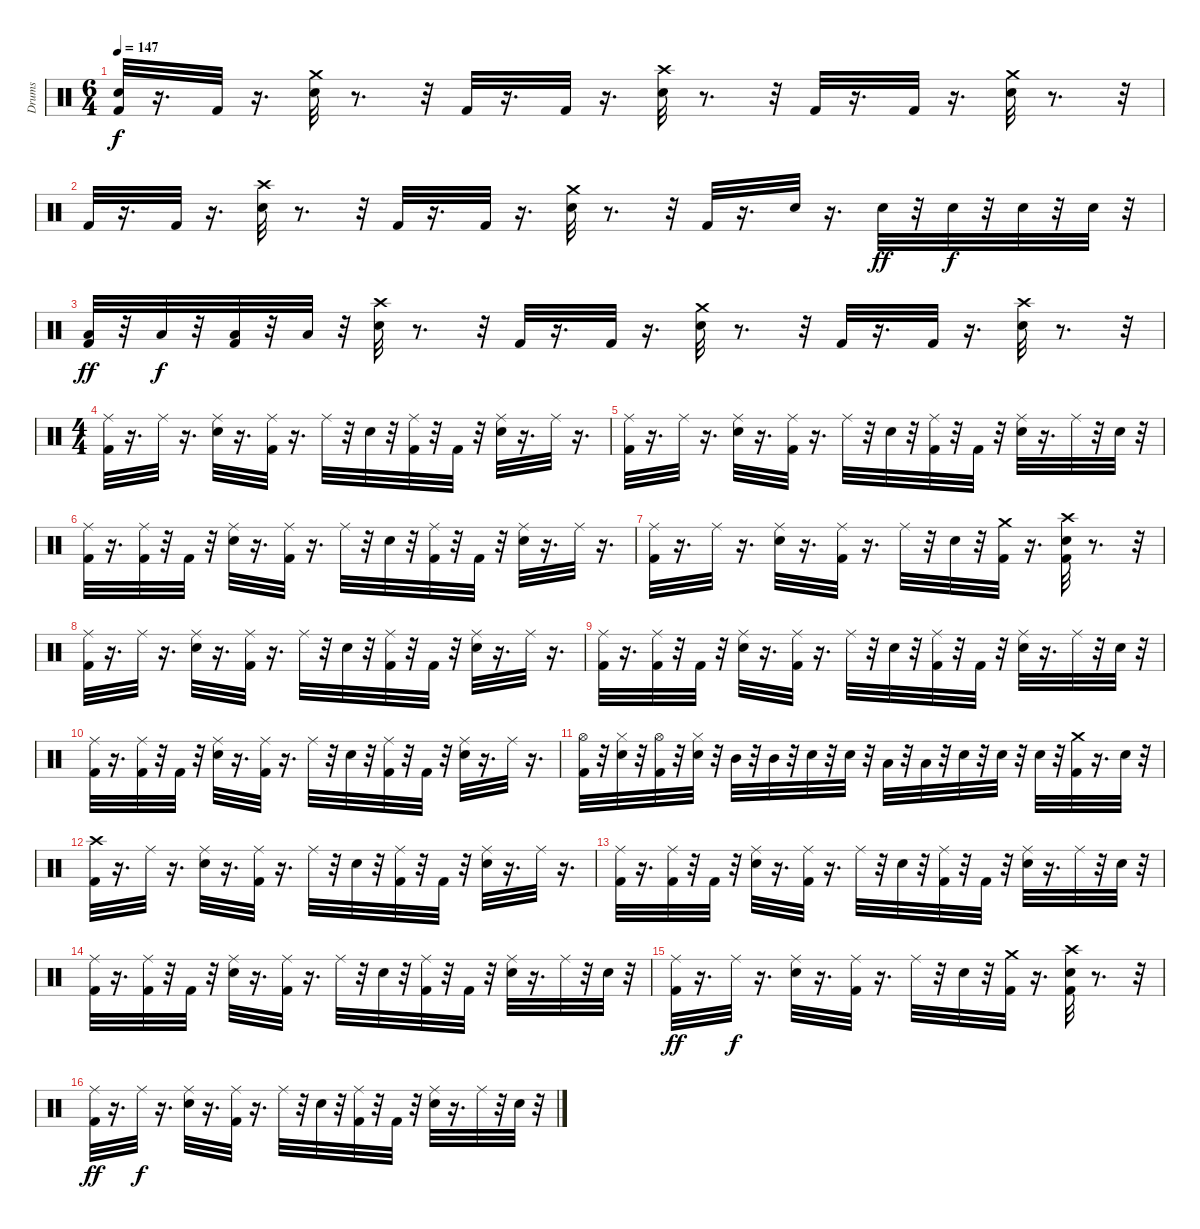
\track ("Drums" "Drums") {instrument percussion}
\staff {score}
\articulation defaults
\ts (6 4)
\tempo 147
\clef neutral
\ks c
("Snare (hit) 2" "Kick (hit) 2").32{dy f} r.16{d} "Kick (hit) 2".32 r.16{d} ("Crash medium (hit)" "Snare (hit) 2").32 r.8{d} r.32 "Kick (hit) 2".32 r.16{d} "Kick (hit) 2".32 r.16{d} ("Snare (hit) 2" "Crash high (hit)").32 r.8{d} r.32 "Kick (hit) 2".32 r.16{d} "Kick (hit) 2".32 r.16{d} ("Crash medium (hit)" "Snare (hit) 2").32 r.8{d} r.32 |
"Kick (hit) 2".32 r.16{d} "Kick (hit) 2".32 r.16{d} ("Snare (hit) 2" "Crash high (hit)").32 r.8{d} r.32 "Kick (hit) 2".32 r.16{d} "Kick (hit) 2".32 r.16{d} ("Crash medium (hit)" "Snare (hit) 2").32 r.8{d} r.32 "Kick (hit) 2".32 r.16{d} "Snare (hit) 2".32 r.16{d} "Snare (hit) 2".32{dy ff} r.32 "Snare (hit) 2".32{dy f} r.32 "Snare (hit) 2".32 r.32 "Snare (hit) 2".32 r.32 |
("Kick (hit) 2" "Low Tom (hit)").32{dy ff} r.32 "Low Tom (hit)".32{dy f} r.32 ("Kick (hit) 2" "Low Tom (hit)").32 r.32 "Low Tom (hit)".32 r.32 ("Crash high (hit)" "Snare (hit) 2").32 r.8{d} r.32 "Kick (hit) 2".32 r.16{d} "Kick (hit) 2".32 r.16{d} ("Crash medium (hit)" "Snare (hit) 2").32 r.8{d} r.32 "Kick (hit) 2".32 r.16{d} "Kick (hit) 2".32 r.16{d} ("Crash high (hit)" "Snare (hit) 2").32 r.8{d} r.32 |
\ts (4 4)
("Ride (middle)" "Kick (hit) 2").32 r.16{d} "Ride (middle)".32 r.16{d} ("Ride (middle)" "Snare (hit) 2").32 r.16{d} ("Kick (hit) 2" "Ride (middle)").32 r.16{d} "Ride (middle)".32 r.32 "Snare (hit) 2".32 r.32 ("Ride (middle)" "Kick (hit) 2").32 r.32 "Kick (hit) 2".32 r.32 ("Ride (middle)" "Snare (hit) 2").32 r.16{d} "Ride (middle)".32 r.16{d} |
("Ride (middle)" "Kick (hit) 2").32 r.16{d} "Ride (middle)".32 r.16{d} ("Ride (middle)" "Snare (hit) 2").32 r.16{d} ("Kick (hit) 2" "Ride (middle)").32 r.16{d} "Ride (middle)".32 r.32 "Snare (hit) 2".32 r.32 ("Ride (middle)" "Kick (hit) 2").32 r.32 "Kick (hit) 2".32 r.32 ("Ride (middle)" "Snare (hit) 2").32 r.16{d} "Ride (middle)".32 r.32 "Snare (hit) 2".32 r.32 |
("Ride (middle)" "Kick (hit) 2").32 r.16{d} ("Kick (hit) 2" "Ride (middle)").32 r.32 "Kick (hit) 2".32 r.32 ("Ride (middle)" "Snare (hit) 2").32 r.16{d} ("Kick (hit) 2" "Ride (middle)").32 r.16{d} "Ride (middle)".32 r.32 "Snare (hit) 2".32 r.32 ("Ride (middle)" "Kick (hit) 2").32 r.32 "Kick (hit) 2".32 r.32 ("Ride (middle)" "Snare (hit) 2").32 r.16{d} "Ride (middle)".32 r.16{d} |
("Ride (middle)" "Kick (hit) 2").32 r.16{d} "Ride (middle)".32 r.16{d} ("Ride (middle)" "Snare (hit) 2").32 r.16{d} ("Kick (hit) 2" "Ride (middle)").32 r.16{d} "Ride (middle)".32 r.32 "Snare (hit) 2".32 r.32 ("Crash medium (hit)" "Kick (hit) 2").32 r.16{d} ("Crash high (hit)" "Kick (hit) 2" "Snare (hit) 2").32 r.8{d} r.32 |
("Ride (middle)" "Kick (hit) 2").32 r.16{d} "Ride (middle)".32 r.16{d} ("Ride (middle)" "Snare (hit) 2").32 r.16{d} ("Kick (hit) 2" "Ride (middle)").32 r.16{d} "Ride (middle)".32 r.32 "Snare (hit) 2".32 r.32 ("Ride (middle)" "Kick (hit) 2").32 r.32 "Kick (hit) 2".32 r.32 ("Ride (middle)" "Snare (hit) 2").32 r.16{d} "Ride (middle)".32 r.16{d} |
("Ride (middle)" "Kick (hit) 2").32 r.16{d} ("Kick (hit) 2" "Ride (middle)").32 r.32 "Kick (hit) 2".32 r.32 ("Ride (middle)" "Snare (hit) 2").32 r.16{d} ("Kick (hit) 2" "Ride (middle)").32 r.16{d} "Ride (middle)".32 r.32 "Snare (hit) 2".32 r.32 ("Ride (middle)" "Kick (hit) 2").32 r.32 "Kick (hit) 2".32 r.32 ("Ride (middle)" "Snare (hit) 2").32 r.16{d} "Ride (middle)".32 r.32 "Snare (hit) 2".32 r.32 |
("Ride (middle)" "Kick (hit) 2").32 r.16{d} ("Kick (hit) 2" "Ride (middle)").32 r.32 "Kick (hit) 2".32 r.32 ("Ride (middle)" "Snare (hit) 2").32 r.16{d} ("Kick (hit) 2" "Ride (middle)").32 r.16{d} "Ride (middle)".32 r.32 "Snare (hit) 2".32 r.32 ("Ride (middle)" "Kick (hit) 2").32 r.32 "Kick (hit) 2".32 r.32 ("Ride (middle)" "Snare (hit) 2").32 r.16{d} "Ride (middle)".32 r.16{d} |
("Hi-Hat (open)" "Kick (hit) 2").32 r.32 ("Hi-Hat (closed)" "Snare (hit) 2").32 r.32 ("Hi-Hat (open)" "Kick (hit) 2").32 r.32 ("Hi-Hat (closed)" "Snare (hit) 2").32 r.32 "Mid Tom (hit)".32 r.32 "Mid Tom (hit)".32 r.32 "Snare (hit) 2".32 r.32 "Snare (hit) 2".32 r.32 "Low Tom (hit)".32 r.32 "Low Tom (hit)".32 r.32 "Snare (hit) 2".32 r.32 "Snare (hit) 2".32 r.32 "Snare (hit) 2".32 r.32 ("Crash medium (hit)" "Kick (hit) 2").32 r.16{d} "Snare (hit) 2".32 r.32 |
("Crash high (hit)" "Kick (hit) 2").32 r.16{d} "Ride (middle)".32 r.16{d} ("Ride (middle)" "Snare (hit) 2").32 r.16{d} ("Kick (hit) 2" "Ride (middle)").32 r.16{d} "Ride (middle)".32 r.32 "Snare (hit) 2".32 r.32 ("Ride (middle)" "Kick (hit) 2").32 r.32 "Kick (hit) 2".32 r.32 ("Ride (middle)" "Snare (hit) 2").32 r.16{d} "Ride (middle)".32 r.16{d} |
("Ride (middle)" "Kick (hit) 2").32 r.16{d} ("Kick (hit) 2" "Ride (middle)").32 r.32 "Kick (hit) 2".32 r.32 ("Ride (middle)" "Snare (hit) 2").32 r.16{d} ("Kick (hit) 2" "Ride (middle)").32 r.16{d} "Ride (middle)".32 r.32 "Snare (hit) 2".32 r.32 ("Ride (middle)" "Kick (hit) 2").32 r.32 "Kick (hit) 2".32 r.32 ("Ride (middle)" "Snare (hit) 2").32 r.16{d} "Ride (middle)".32 r.32 "Snare (hit) 2".32 r.32 |
("Ride (middle)" "Kick (hit) 2").32 r.16{d} ("Kick (hit) 2" "Ride (middle)").32 r.32 "Kick (hit) 2".32 r.32 ("Ride (middle)" "Snare (hit) 2").32 r.16{d} ("Kick (hit) 2" "Ride (middle)").32 r.16{d} "Ride (middle)".32 r.32 "Snare (hit) 2".32 r.32 ("Ride (middle)" "Kick (hit) 2").32 r.32 "Kick (hit) 2".32 r.32 ("Ride (middle)" "Snare (hit) 2").32 r.16{d} "Ride (middle)".32 r.32 "Snare (hit) 2".32 r.32 |
("Ride (middle)" "Kick (hit) 2").32{dy ff} r.16{d} "Ride (middle)".32{dy f} r.16{d} ("Ride (middle)" "Snare (hit) 2").32 r.16{d} ("Kick (hit) 2" "Ride (middle)").32 r.16{d} "Ride (middle)".32 r.32 "Snare (hit) 2".32 r.32 ("Crash medium (hit)" "Kick (hit) 2").32 r.16{d} ("Crash high (hit)" "Kick (hit) 2" "Snare (hit) 2").32 r.8{d} r.32 |
("Ride (middle)" "Kick (hit) 2").32{dy ff} r.16{d} "Ride (middle)".32{dy f} r.16{d} ("Ride (middle)" "Snare (hit) 2").32 r.16{d} ("Kick (hit) 2" "Ride (middle)").32 r.16{d} "Ride (middle)".32 r.32 "Snare (hit) 2".32 r.32 ("Ride (middle)" "Kick (hit) 2").32 r.32 "Kick (hit) 2".32 r.32 ("Ride (middle)" "Snare (hit) 2").32 r.16{d} "Ride (middle)".32 r.32 "Snare (hit) 2".32 r.32
